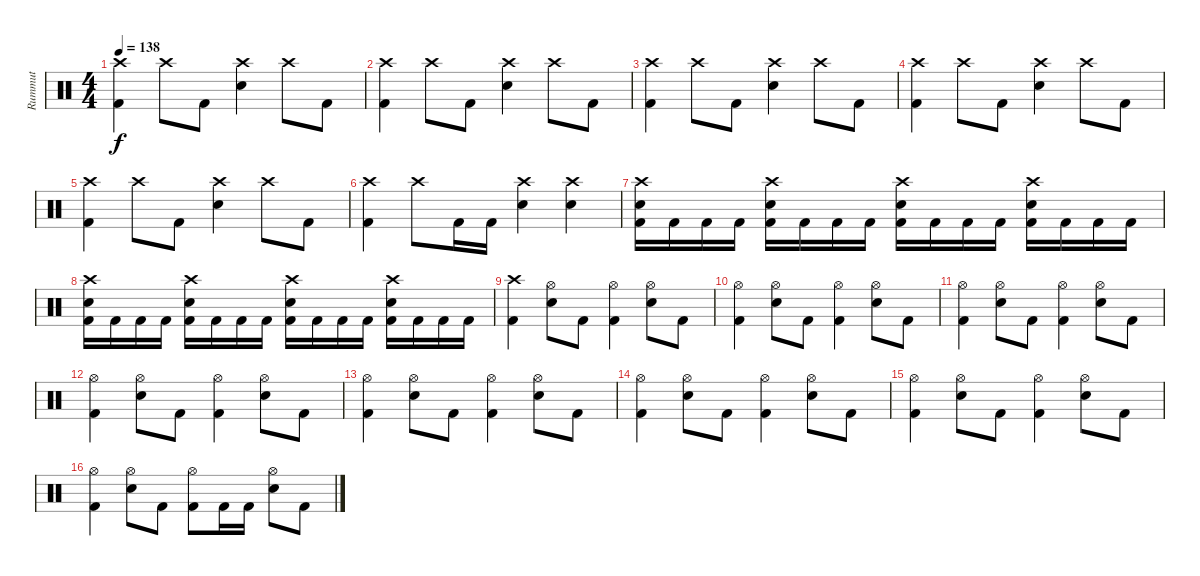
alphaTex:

\track ("Rummut" "Rummut") {instrument percussion}
\staff {score}
\articulation defaults
\ts (4 4)
\tempo 138
\clef neutral
\ks c
("Crash high (hit)" "Kick (hit) 2").4{dy f} "Crash high (hit)".8 "Kick (hit) 2".8 ("Crash high (hit)" "Snare (hit) 2").4 "Crash high (hit)".8 "Kick (hit) 2".8 |
("Crash high (hit)" "Kick (hit) 2").4 "Crash high (hit)".8 "Kick (hit) 2".8 ("Crash high (hit)" "Snare (hit) 2").4 "Crash high (hit)".8 "Kick (hit) 2".8 |
("Crash high (hit)" "Kick (hit) 2").4 "Crash high (hit)".8 "Kick (hit) 2".8 ("Crash high (hit)" "Snare (hit) 2").4 "Crash high (hit)".8 "Kick (hit) 2".8 |
("Crash high (hit)" "Kick (hit) 2").4 "Crash high (hit)".8 "Kick (hit) 2".8 ("Crash high (hit)" "Snare (hit) 2").4 "Crash high (hit)".8 "Kick (hit) 2".8 |
("Crash high (hit)" "Kick (hit) 2").4 "Crash high (hit)".8 "Kick (hit) 2".8 ("Crash high (hit)" "Snare (hit) 2").4 "Crash high (hit)".8 "Kick (hit) 2".8 |
("Crash high (hit)" "Kick (hit) 2").4 "Crash high (hit)".8 "Kick (hit) 2".16 "Kick (hit) 2".16 ("Crash high (hit)" "Snare (hit) 2").4 ("Crash high (hit)" "Snare (hit) 2").4 |
("Crash high (hit)" "Snare (hit) 2" "Kick (hit) 2").16 "Kick (hit) 2".16 "Kick (hit) 2".16 "Kick (hit) 2".16 ("Crash high (hit)" "Snare (hit) 2" "Kick (hit) 2").16 "Kick (hit) 2".16 "Kick (hit) 2".16 "Kick (hit) 2".16 ("Crash high (hit)" "Snare (hit) 2" "Kick (hit) 2").16 "Kick (hit) 2".16 "Kick (hit) 2".16 "Kick (hit) 2".16 ("Crash high (hit)" "Snare (hit) 2" "Kick (hit) 2").16 "Kick (hit) 2".16 "Kick (hit) 2".16 "Kick (hit) 2".16 |
("Crash high (hit)" "Snare (hit) 2" "Kick (hit) 2").16 "Kick (hit) 2".16 "Kick (hit) 2".16 "Kick (hit) 2".16 ("Crash high (hit)" "Snare (hit) 2" "Kick (hit) 2").16 "Kick (hit) 2".16 "Kick (hit) 2".16 "Kick (hit) 2".16 ("Crash high (hit)" "Snare (hit) 2" "Kick (hit) 2").16 "Kick (hit) 2".16 "Kick (hit) 2".16 "Kick (hit) 2".16 ("Crash high (hit)" "Snare (hit) 2" "Kick (hit) 2").16 "Kick (hit) 2".16 "Kick (hit) 2".16 "Kick (hit) 2".16 |
("Crash high (hit)" "Kick (hit) 2").4 ("Hi-Hat (open)" "Snare (hit) 2").8 "Kick (hit) 2".8 ("Hi-Hat (open)" "Kick (hit) 2").4 ("Hi-Hat (open)" "Snare (hit) 2").8 "Kick (hit) 2".8 |
("Hi-Hat (open)" "Kick (hit) 2").4 ("Hi-Hat (open)" "Snare (hit) 2").8 "Kick (hit) 2".8 ("Hi-Hat (open)" "Kick (hit) 2").4 ("Hi-Hat (open)" "Snare (hit) 2").8 "Kick (hit) 2".8 |
("Hi-Hat (open)" "Kick (hit) 2").4 ("Hi-Hat (open)" "Snare (hit) 2").8 "Kick (hit) 2".8 ("Hi-Hat (open)" "Kick (hit) 2").4 ("Hi-Hat (open)" "Snare (hit) 2").8 "Kick (hit) 2".8 |
("Hi-Hat (open)" "Kick (hit) 2").4 ("Hi-Hat (open)" "Snare (hit) 2").8 "Kick (hit) 2".8 ("Hi-Hat (open)" "Kick (hit) 2").4 ("Hi-Hat (open)" "Snare (hit) 2").8 "Kick (hit) 2".8 |
("Hi-Hat (open)" "Kick (hit) 2").4 ("Hi-Hat (open)" "Snare (hit) 2").8 "Kick (hit) 2".8 ("Hi-Hat (open)" "Kick (hit) 2").4 ("Hi-Hat (open)" "Snare (hit) 2").8 "Kick (hit) 2".8 |
("Hi-Hat (open)" "Kick (hit) 2").4 ("Hi-Hat (open)" "Snare (hit) 2").8 "Kick (hit) 2".8 ("Hi-Hat (open)" "Kick (hit) 2").4 ("Hi-Hat (open)" "Snare (hit) 2").8 "Kick (hit) 2".8 |
("Hi-Hat (open)" "Kick (hit) 2").4 ("Hi-Hat (open)" "Snare (hit) 2").8 "Kick (hit) 2".8 ("Hi-Hat (open)" "Kick (hit) 2").4 ("Hi-Hat (open)" "Snare (hit) 2").8 "Kick (hit) 2".8 |
("Hi-Hat (open)" "Kick (hit) 2").4 ("Hi-Hat (open)" "Snare (hit) 2").8 "Kick (hit) 2".8 ("Hi-Hat (open)" "Kick (hit) 2").8 "Kick (hit) 2".16 "Kick (hit) 2".16 ("Hi-Hat (open)" "Snare (hit) 2").8 "Kick (hit) 2".8
